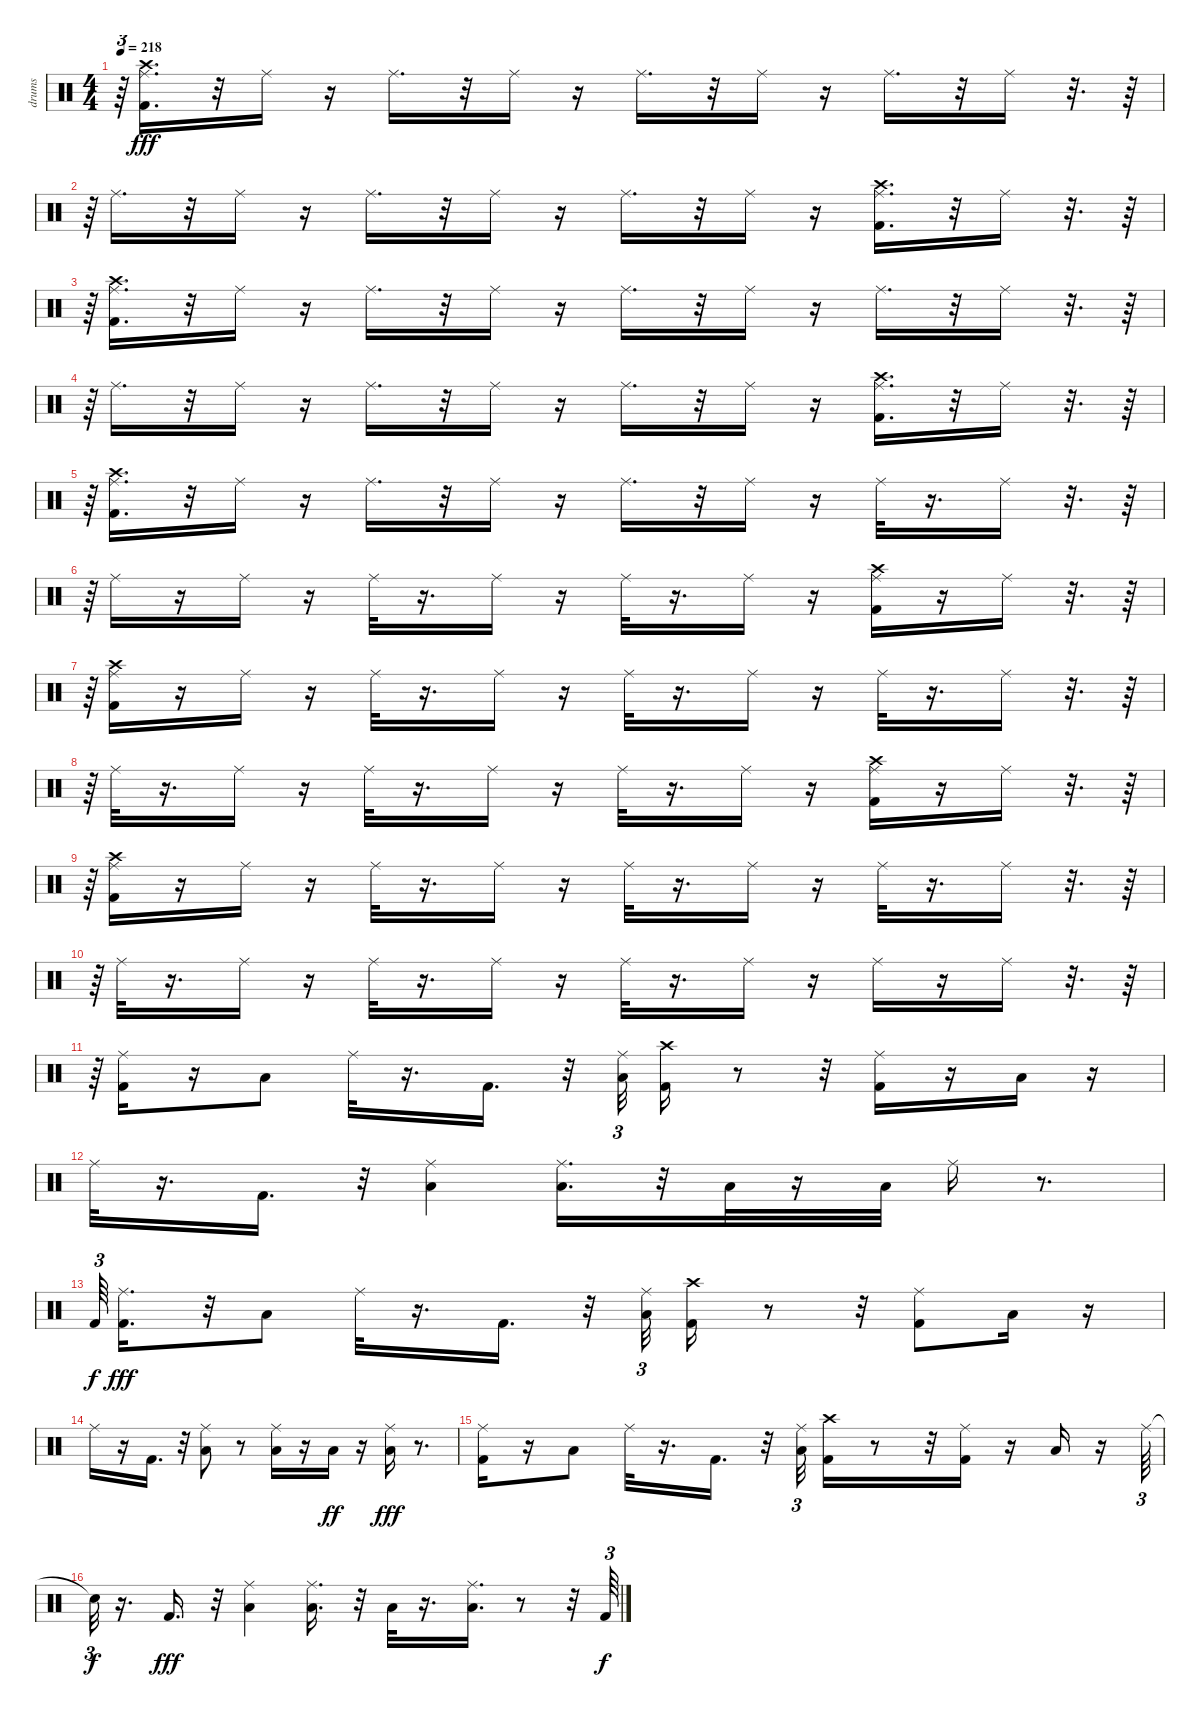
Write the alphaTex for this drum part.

\track ("drums               " "drums     ") {instrument percussion}
\staff {score}
\articulation defaults
\ts (4 4)
\tempo 218
\clef neutral
\ks c
r.64{tu (3 2) dy fff} ("Kick (hit) 2" "Ride (middle)" "Crash high (hit)").16{d} r.32 "Ride (middle)".16 r.16 "Ride (middle)".16{d} r.32 "Ride (middle)".16 r.16 "Ride (middle)".16{d} r.32 "Ride (middle)".16 r.16 "Ride (middle)".16{d} r.32 "Ride (middle)".16 r.32{d} r.64 |
r.64{tu (3 2)} "Ride (middle)".16{d} r.32 "Ride (middle)".16 r.16 "Ride (middle)".16{d} r.32 "Ride (middle)".16 r.16 "Ride (middle)".16{d} r.32 "Ride (middle)".16 r.16 ("Kick (hit) 2" "Ride (middle)" "Crash high (hit)").16{d} r.32 "Ride (middle)".16 r.32{d} r.64 |
r.64{tu (3 2)} ("Kick (hit) 2" "Ride (middle)" "Crash high (hit)").16{d} r.32 "Ride (middle)".16 r.16 "Ride (middle)".16{d} r.32 "Ride (middle)".16 r.16 "Ride (middle)".16{d} r.32 "Ride (middle)".16 r.16 "Ride (middle)".16{d} r.32 "Ride (middle)".16 r.32{d} r.64 |
r.64{tu (3 2)} "Ride (middle)".16{d} r.32 "Ride (middle)".16 r.16 "Ride (middle)".16{d} r.32 "Ride (middle)".16 r.16 "Ride (middle)".16{d} r.32 "Ride (middle)".16 r.16 ("Kick (hit) 2" "Ride (middle)" "Crash high (hit)").16{d} r.32 "Ride (middle)".16 r.32{d} r.64 |
r.64{tu (3 2)} ("Kick (hit) 2" "Ride (middle)" "Crash high (hit)").16{d} r.32 "Ride (middle)".16 r.16 "Ride (middle)".16{d} r.32 "Ride (middle)".16 r.16 "Ride (middle)".16{d} r.32 "Ride (middle)".16 r.16 "Ride (middle)".32 r.16{d} "Ride (middle)".16 r.32{d} r.64 |
r.64{tu (3 2)} "Ride (middle)".16 r.16 "Ride (middle)".16 r.16 "Ride (middle)".32 r.16{d} "Ride (middle)".16 r.16 "Ride (middle)".32 r.16{d} "Ride (middle)".16 r.16 ("Kick (hit) 2" "Ride (middle)" "Crash high (hit)").16 r.16 "Ride (middle)".16 r.32{d} r.64 |
r.64{tu (3 2)} ("Kick (hit) 2" "Ride (middle)" "Crash high (hit)").16 r.16 "Ride (middle)".16 r.16 "Ride (middle)".32 r.16{d} "Ride (middle)".16 r.16 "Ride (middle)".32 r.16{d} "Ride (middle)".16 r.16 "Ride (middle)".32 r.16{d} "Ride (middle)".16 r.32{d} r.64 |
r.64{tu (3 2)} "Ride (middle)".32 r.16{d} "Ride (middle)".16 r.16 "Ride (middle)".32 r.16{d} "Ride (middle)".16 r.16 "Ride (middle)".32 r.16{d} "Ride (middle)".16 r.16 ("Kick (hit) 2" "Crash high (hit)" "Ride (middle)").16 r.16 "Ride (middle)".16 r.32{d} r.64 |
r.64{tu (3 2)} ("Kick (hit) 2" "Ride (middle)" "Crash high (hit)").16 r.16 "Ride (middle)".16 r.16 "Ride (middle)".32 r.16{d} "Ride (middle)".16 r.16 "Ride (middle)".32 r.16{d} "Ride (middle)".16 r.16 "Ride (middle)".32 r.16{d} "Ride (middle)".16 r.32{d} r.64 |
r.64{tu (3 2)} "Ride (middle)".32 r.16{d} "Ride (middle)".16 r.16 "Ride (middle)".32 r.16{d} "Ride (middle)".16 r.16 "Ride (middle)".32 r.16{d} "Ride (middle)".16 r.16 "Ride (middle)".16 r.16 "Ride (middle)".16 r.32{d} r.64 |
r.64{tu (3 2)} ("Kick (hit) 2" "Ride (middle)").16 r.16 "Low Tom (hit)".8 "Ride (middle)".32 r.16{d} "Kick (hit) 2".16{d} r.32 ("Ride (middle)" "Low Tom (hit)").32{tu (3 2)} ("Kick (hit) 2" "Crash high (hit)").16 r.8 r.32 ("Ride (middle)" "Kick (hit) 2").16 r.16 "Low Tom (hit)".16 r.16 |
"Ride (middle)".32 r.16{d} "Kick (hit) 2".16{d} r.32 ("Ride (middle)" "Low Tom (hit)").4 ("Ride (middle)" "Low Floor Tom (hit)").16{d} r.32 "Low Floor Tom (hit)".32 r.16 "Low Floor Tom (hit)".32 "Ride (middle)".16 r.8{d} |
"Kick (hit) 2".64{tu (3 2) dy f} ("Kick (hit) 2" "Ride (middle)").16{d dy fff} r.32 "Low Tom (hit)".8 "Ride (middle)".32 r.16{d} "Kick (hit) 2".16{d} r.32 ("Ride (middle)" "Low Tom (hit)").32{tu (3 2)} ("Kick (hit) 2" "Crash high (hit)").16 r.8 r.32 ("Ride (middle)" "Kick (hit) 2").8 "Low Tom (hit)".16 r.16 |
"Ride (middle)".16 r.16 "Kick (hit) 2".16{d} r.32 ("Ride (middle)" "Low Tom (hit)").8 r.8 ("Ride (middle)" "Low Floor Tom (hit)").16 r.16 "Low Floor Tom (hit)".16{dy ff} r.16 ("Low Floor Tom (hit)" "Ride (middle)").16{dy fff} r.8{d} |
("Kick (hit) 2" "Ride (middle)").16 r.16 "Low Tom (hit)".8 "Ride (middle)".32 r.16{d} "Kick (hit) 2".16{d} r.32 ("Ride (middle)" "Low Tom (hit)").32{tu (3 2)} ("Kick (hit) 2" "Crash high (hit)").16 r.8 r.32 ("Ride (middle)" "Kick (hit) 2").16 r.16 "Low Tom (hit)".16 r.16 "Ride (middle)".64{tu (3 2)} |
"Snare (hit)"{t}.32{tu (3 2) dy f} r.16{d} "Kick (hit) 2".16{d dy fff} r.32 ("Ride (middle)" "Low Tom (hit)").4 ("Ride (middle)" "Low Floor Tom (hit)").16{d} r.32 "Low Floor Tom (hit)".32 r.16{d} ("Low Floor Tom (hit)" "Ride (middle)").16{d} r.8 r.32 "Kick (hit) 2".64{tu (3 2) dy f}
